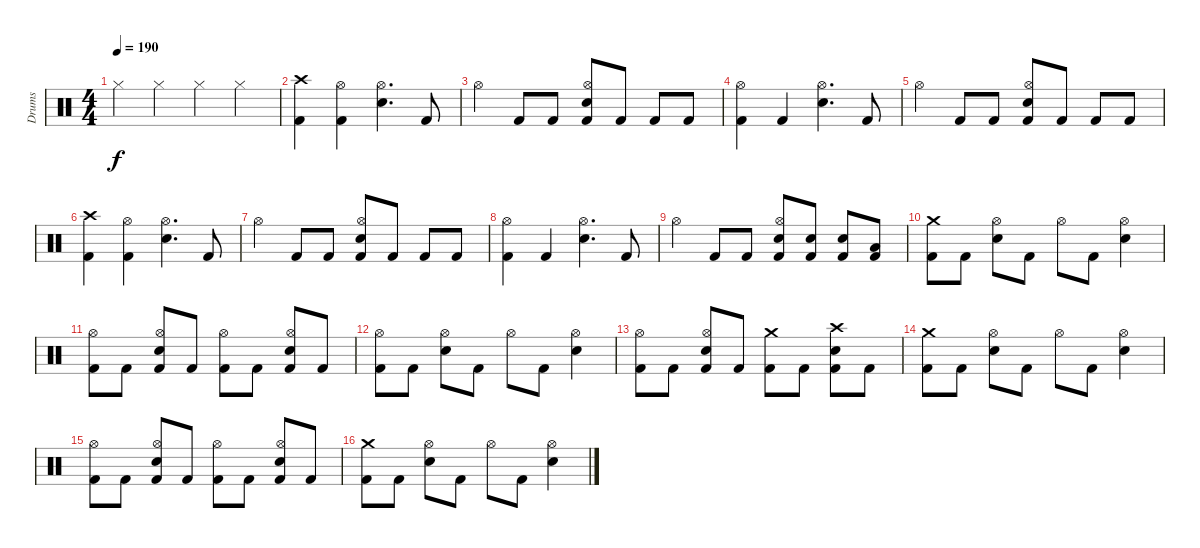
\track ("Drums" "Drums") {instrument percussion}
\staff {score}
\articulation defaults
\ts (4 4)
\tempo 190
\clef neutral
\ks c "Hi-Hat (closed)".4{dy f} "Hi-Hat (closed)".4 "Hi-Hat (closed)".4 "Hi-Hat (closed)".4
|
("Crash high (hit)" "Kick (hit) 2").4 ("Hi-Hat (open)" "Kick (hit) 2").4 ("Hi-Hat (open)" "Electric Snare (hit)").4{d} "Kick (hit) 2".8 |
"Hi-Hat (open)".4 "Kick (hit) 2".8 "Kick (hit) 2".8 ("Hi-Hat (open)" "Electric Snare (hit)" "Kick (hit) 2").8 "Kick (hit) 2".8 "Kick (hit) 2".8 "Kick (hit) 2".8 |
("Hi-Hat (open)" "Kick (hit) 2").4 "Kick (hit) 2".4 ("Hi-Hat (open)" "Electric Snare (hit)").4{d} "Kick (hit) 2".8 |
"Hi-Hat (open)".4 "Kick (hit) 2".8 "Kick (hit) 2".8 ("Hi-Hat (open)" "Electric Snare (hit)" "Kick (hit) 2").8 "Kick (hit) 2".8 "Kick (hit) 2".8 "Kick (hit) 2".8 |
("Crash high (hit)" "Kick (hit) 2").4 ("Hi-Hat (open)" "Kick (hit) 2").4 ("Hi-Hat (open)" "Electric Snare (hit)").4{d} "Kick (hit) 2".8 |
"Hi-Hat (open)".4 "Kick (hit) 2".8 "Kick (hit) 2".8 ("Hi-Hat (open)" "Electric Snare (hit)" "Kick (hit) 2").8 "Kick (hit) 2".8 "Kick (hit) 2".8 "Kick (hit) 2".8 |
("Hi-Hat (open)" "Kick (hit) 2").4 "Kick (hit) 2".4 ("Hi-Hat (open)" "Electric Snare (hit)").4{d} "Kick (hit) 2".8 |
"Hi-Hat (open)".4 "Kick (hit) 2".8 "Kick (hit) 2".8 ("Hi-Hat (open)" "Electric Snare (hit)" "Kick (hit) 2").8 ("Electric Snare (hit)" "Kick (hit) 2").8 ("Electric Snare (hit)" "Kick (hit) 2").8 ("Low Tom (hit)" "Kick (hit) 2").8 |
("Crash medium (hit)" "Kick (hit) 2").8 "Kick (hit) 2".8 ("Hi-Hat (open)" "Electric Snare (hit)").8 "Kick (hit) 2".8 "Hi-Hat (open)".8 "Kick (hit) 2".8 ("Hi-Hat (open)" "Electric Snare (hit)").4 |
("Hi-Hat (open)" "Kick (hit) 2").8 "Kick (hit) 2".8 ("Hi-Hat (open)" "Electric Snare (hit)" "Kick (hit) 2").8 "Kick (hit) 2".8 ("Hi-Hat (open)" "Kick (hit) 2").8 "Kick (hit) 2".8 ("Hi-Hat (open)" "Electric Snare (hit)" "Kick (hit) 2").8 "Kick (hit) 2".8 |
("Hi-Hat (open)" "Kick (hit) 2").8 "Kick (hit) 2".8 ("Hi-Hat (open)" "Electric Snare (hit)").8 "Kick (hit) 2".8 "Hi-Hat (open)".8 "Kick (hit) 2".8 ("Hi-Hat (open)" "Electric Snare (hit)").4 |
("Hi-Hat (open)" "Kick (hit) 2").8 "Kick (hit) 2".8 ("Hi-Hat (open)" "Electric Snare (hit)" "Kick (hit) 2").8 "Kick (hit) 2".8 ("Crash medium (hit)" "Kick (hit) 2").8 "Kick (hit) 2".8 ("Crash high (hit)" "Electric Snare (hit)" "Kick (hit) 2").8 "Kick (hit) 2".8 |
("Crash medium (hit)" "Kick (hit) 2").8 "Kick (hit) 2".8 ("Hi-Hat (open)" "Electric Snare (hit)").8 "Kick (hit) 2".8 "Hi-Hat (open)".8 "Kick (hit) 2".8 ("Hi-Hat (open)" "Electric Snare (hit)").4 |
("Hi-Hat (open)" "Kick (hit) 2").8 "Kick (hit) 2".8 ("Hi-Hat (open)" "Electric Snare (hit)" "Kick (hit) 2").8 "Kick (hit) 2".8 ("Hi-Hat (open)" "Kick (hit) 2").8 "Kick (hit) 2".8 ("Hi-Hat (open)" "Electric Snare (hit)" "Kick (hit) 2").8 "Kick (hit) 2".8 |
("Crash medium (hit)" "Kick (hit) 2").8 "Kick (hit) 2".8 ("Hi-Hat (open)" "Electric Snare (hit)").8 "Kick (hit) 2".8 "Hi-Hat (open)".8 "Kick (hit) 2".8 ("Hi-Hat (open)" "Electric Snare (hit)").4
